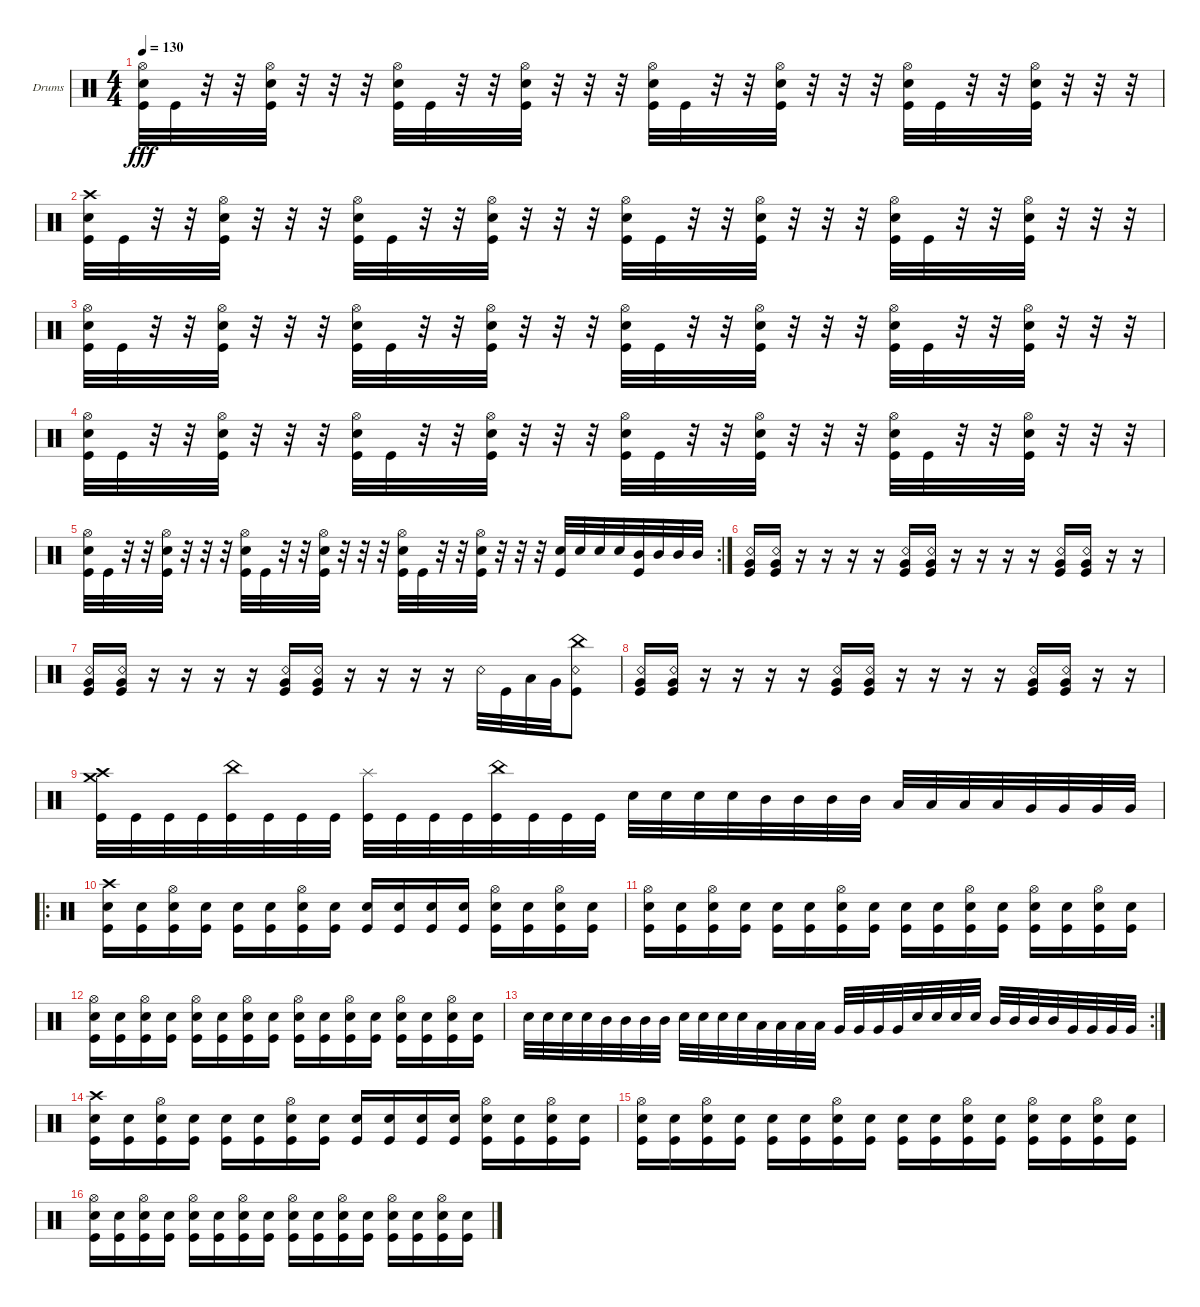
\bracketExtendMode groupsimilarinstruments
\firstSystemTrackNameOrientation horizontal
\otherSystemsTrackNameOrientation horizontal
\track ("Drumkit" "Drums") {instrument percussion}
\staff {score}
\articulation defaults
\ts (4 4)
\tempo 130
\clef neutral
\scale
0.333333
\ks c
("Hi-Hat (open)" "Snare (hit) 2" "Kick (hit)").32{dy fff} "Kick (hit)".32 r.32 r.32 ("Hi-Hat (open)" "Snare (hit) 2" "Kick (hit)").32 r.32 r.32 r.32 ("Hi-Hat (open)" "Snare (hit) 2" "Kick (hit)").32 "Kick (hit)".32 r.32 r.32 ("Hi-Hat (open)" "Snare (hit) 2" "Kick (hit)").32 r.32 r.32 r.32 ("Hi-Hat (open)" "Snare (hit) 2" "Kick (hit)").32 "Kick (hit)".32 r.32 r.32 ("Hi-Hat (open)" "Snare (hit) 2" "Kick (hit)").32 r.32 r.32 r.32 ("Hi-Hat (open)" "Snare (hit) 2" "Kick (hit)").32 "Kick (hit)".32 r.32 r.32 ("Hi-Hat (open)" "Snare (hit) 2" "Kick (hit)").32 r.32 r.32 r.32 |
\scale
0.333333 ("Snare (hit) 2" "Crash high (hit)" "Kick (hit)").32 "Kick (hit)".32 r.32 r.32 ("Hi-Hat (open)" "Snare (hit) 2" "Kick (hit)").32 r.32 r.32 r.32 ("Hi-Hat (open)" "Snare (hit) 2" "Kick (hit)").32 "Kick (hit)".32 r.32 r.32 ("Hi-Hat (open)" "Snare (hit) 2" "Kick (hit)").32 r.32 r.32 r.32 ("Hi-Hat (open)" "Snare (hit) 2" "Kick (hit)").32 "Kick (hit)".32 r.32 r.32 ("Hi-Hat (open)" "Snare (hit) 2" "Kick (hit)").32 r.32 r.32 r.32 ("Hi-Hat (open)" "Snare (hit) 2" "Kick (hit)").32 "Kick (hit)".32 r.32 r.32 ("Hi-Hat (open)" "Snare (hit) 2" "Kick (hit)").32 r.32 r.32 r.32 |
\scale
0.321839 ("Hi-Hat (open)" "Snare (hit) 2" "Kick (hit)").32 "Kick (hit)".32 r.32 r.32 ("Hi-Hat (open)" "Snare (hit) 2" "Kick (hit)").32 r.32 r.32 r.32 ("Hi-Hat (open)" "Snare (hit) 2" "Kick (hit)").32 "Kick (hit)".32 r.32 r.32 ("Hi-Hat (open)" "Snare (hit) 2" "Kick (hit)").32 r.32 r.32 r.32 ("Hi-Hat (open)" "Snare (hit) 2" "Kick (hit)").32 "Kick (hit)".32 r.32 r.32 ("Hi-Hat (open)" "Snare (hit) 2" "Kick (hit)").32 r.32 r.32 r.32 ("Hi-Hat (open)" "Snare (hit) 2" "Kick (hit)").32 "Kick (hit)".32 r.32 r.32 ("Hi-Hat (open)" "Snare (hit) 2" "Kick (hit)").32 r.32 r.32 r.32 |
\scale
0.321839 ("Hi-Hat (open)" "Snare (hit) 2" "Kick (hit)").32 "Kick (hit)".32 r.32 r.32 ("Hi-Hat (open)" "Snare (hit) 2" "Kick (hit)").32 r.32 r.32 r.32 ("Hi-Hat (open)" "Snare (hit) 2" "Kick (hit)").32 "Kick (hit)".32 r.32 r.32 ("Hi-Hat (open)" "Snare (hit) 2" "Kick (hit)").32 r.32 r.32 r.32 ("Hi-Hat (open)" "Snare (hit) 2" "Kick (hit)").32 "Kick (hit)".32 r.32 r.32 ("Hi-Hat (open)" "Snare (hit) 2" "Kick (hit)").32 r.32 r.32 r.32 ("Hi-Hat (open)" "Snare (hit) 2" "Kick (hit)").32 "Kick (hit)".32 r.32 r.32 ("Hi-Hat (open)" "Snare (hit) 2" "Kick (hit)").32 r.32 r.32 r.32 |
\rc 2
\scale
0.356322 ("Hi-Hat (open)" "Snare (hit) 2" "Kick (hit)").32 "Kick (hit)".32 r.32 r.32 ("Hi-Hat (open)" "Snare (hit) 2" "Kick (hit)").32 r.32 r.32 r.32 ("Hi-Hat (open)" "Snare (hit) 2" "Kick (hit)").32 "Kick (hit)".32 r.32 r.32 ("Hi-Hat (open)" "Snare (hit) 2" "Kick (hit)").32 r.32 r.32 r.32 ("Hi-Hat (open)" "Snare (hit) 2" "Kick (hit)").32 "Kick (hit)".32 r.32 r.32 ("Hi-Hat (open)" "Snare (hit) 2" "Kick (hit)").32 r.32 r.32 r.32 ("Kick (hit)" "Snare (hit) 2").32 "Snare (hit) 2".32 "Snare (hit) 2".32 "Snare (hit) 2".32 ("Kick (hit)" "Mid Tom (hit)").32 "Mid Tom (hit)".32 "Mid Tom (hit)".32 "Mid Tom (hit)".32 |
\scale
0.333333 ("Kick (hit)" "Snare (rim shot)" "Very Low Tom (hit)").16 ("Kick (hit)" "Snare (rim shot)" "Very Low Tom (hit)").16 r.16 r.16 r.16 r.16 ("Kick (hit)" "Snare (rim shot)" "Very Low Tom (hit)").16 ("Kick (hit)" "Snare (rim shot)" "Very Low Tom (hit)").16 r.16 r.16 r.16 r.16 ("Kick (hit)" "Snare (rim shot)" "Very Low Tom (hit)").16 ("Kick (hit)" "Snare (rim shot)" "Very Low Tom (hit)").16 r.16 r.16 |
\scale
0.333333 ("Kick (hit)" "Snare (rim shot)" "Very Low Tom (hit)").16 ("Kick (hit)" "Snare (rim shot)" "Very Low Tom (hit)").16 r.16 r.16 r.16 r.16 ("Kick (hit)" "Snare (rim shot)" "Very Low Tom (hit)").16 ("Kick (hit)" "Snare (rim shot)" "Very Low Tom (hit)").16 r.16 r.16 r.16 r.16 "Snare (rim shot)".32 "Kick (hit)".32 "Low Tom (hit)".32 "Very Low Tom (hit)".32 ("Kick (hit)" "Snare (rim shot)" "China (hit)").8 |
\scale
0.333333 ("Kick (hit)" "Snare (rim shot)" "Very Low Tom (hit)").16 ("Kick (hit)" "Snare (rim shot)" "Very Low Tom (hit)").16 r.16 r.16 r.16 r.16 ("Kick (hit)" "Snare (rim shot)" "Very Low Tom (hit)").16 ("Kick (hit)" "Snare (rim shot)" "Very Low Tom (hit)").16 r.16 r.16 r.16 r.16 ("Kick (hit)" "Snare (rim shot)" "Very Low Tom (hit)").16 ("Kick (hit)" "Snare (rim shot)" "Very Low Tom (hit)").16 r.16 r.16 |
\scale
0.311111 ("Kick (hit)" "Crash high (hit)" "Crash medium (hit)").32 "Kick (hit)".32 "Kick (hit)".32 "Kick (hit)".32 ("Kick (hit)" "China (hit)").32 "Kick (hit)".32 "Kick (hit)".32 "Kick (hit)".32 ("Kick (hit)" "Splash (hit)").32 "Kick (hit)".32 "Kick (hit)".32 "Kick (hit)".32 ("Kick (hit)" "China (hit)").32 "Kick (hit)".32 "Kick (hit)".32 "Kick (hit)".32 "Snare (hit) 2".32 "Snare (hit) 2".32 "Snare (hit) 2".32 "Snare (hit) 2".32 "Mid Tom (hit)".32 "Mid Tom (hit)".32 "Mid Tom (hit)".32 "Mid Tom (hit)".32 "Low Tom (hit)".32 "Low Tom (hit)".32 "Low Tom (hit)".32 "Low Tom (hit)".32 "Very Low Tom (hit)".32 "Very Low Tom (hit)".32 "Very Low Tom (hit)".32 "Very Low Tom (hit)".32 |
\ro
\scale
0.377778 ("Snare (hit) 2" "Kick (hit)" "Crash high (hit)").16 ("Snare (hit) 2" "Kick (hit)").16 ("Snare (hit) 2" "Kick (hit)" "Hi-Hat (open)").16 ("Snare (hit) 2" "Kick (hit)").16 ("Snare (hit) 2" "Kick (hit)").16 ("Snare (hit) 2" "Kick (hit)").16 ("Snare (hit) 2" "Kick (hit)" "Hi-Hat (open)").16 ("Snare (hit) 2" "Kick (hit)").16 ("Snare (hit) 2" "Kick (hit)").16 ("Snare (hit) 2" "Kick (hit)").16 ("Snare (hit) 2" "Kick (hit)").16 ("Snare (hit) 2" "Kick (hit)").16 ("Snare (hit) 2" "Kick (hit)" "Hi-Hat (open)").16 ("Snare (hit) 2" "Kick (hit)").16 ("Snare (hit) 2" "Kick (hit)" "Hi-Hat (open)").16 ("Snare (hit) 2" "Kick (hit)").16 |
\scale
0.311111 ("Snare (hit) 2" "Kick (hit)" "Hi-Hat (open)").16 ("Snare (hit) 2" "Kick (hit)").16 ("Snare (hit) 2" "Kick (hit)" "Hi-Hat (open)").16 ("Snare (hit) 2" "Kick (hit)").16 ("Snare (hit) 2" "Kick (hit)").16 ("Snare (hit) 2" "Kick (hit)").16 ("Snare (hit) 2" "Kick (hit)" "Hi-Hat (open)").16 ("Snare (hit) 2" "Kick (hit)").16 ("Snare (hit) 2" "Kick (hit)").16 ("Snare (hit) 2" "Kick (hit)").16 ("Snare (hit) 2" "Kick (hit)" "Hi-Hat (open)").16 ("Snare (hit) 2" "Kick (hit)").16 ("Snare (hit) 2" "Kick (hit)" "Hi-Hat (open)").16 ("Snare (hit) 2" "Kick (hit)").16 ("Snare (hit) 2" "Kick (hit)" "Hi-Hat (open)").16 ("Snare (hit) 2" "Kick (hit)").16 |
\scale
0.321839 ("Snare (hit) 2" "Kick (hit)" "Hi-Hat (open)").16 ("Snare (hit) 2" "Kick (hit)").16 ("Snare (hit) 2" "Kick (hit)" "Hi-Hat (open)").16 ("Snare (hit) 2" "Kick (hit)").16 ("Snare (hit) 2" "Kick (hit)" "Hi-Hat (open)").16 ("Snare (hit) 2" "Kick (hit)").16 ("Snare (hit) 2" "Kick (hit)" "Hi-Hat (open)").16 ("Snare (hit) 2" "Kick (hit)").16 ("Snare (hit) 2" "Kick (hit)" "Hi-Hat (open)").16 ("Snare (hit) 2" "Kick (hit)").16 ("Snare (hit) 2" "Kick (hit)" "Hi-Hat (open)").16 ("Snare (hit) 2" "Kick (hit)").16 ("Snare (hit) 2" "Kick (hit)" "Hi-Hat (open)").16 ("Snare (hit) 2" "Kick (hit)").16 ("Snare (hit) 2" "Kick (hit)" "Hi-Hat (open)").16 ("Snare (hit) 2" "Kick (hit)").16 |
\rc 2
\scale
0.356322 "Snare (hit) 2".32 "Snare (hit) 2".32 "Snare (hit) 2".32 "Snare (hit) 2".32 "Mid Tom (hit)".32 "Mid Tom (hit)".32 "Mid Tom (hit)".32 "Mid Tom (hit)".32 "Snare (hit) 2".32 "Snare (hit) 2".32 "Snare (hit) 2".32 "Snare (hit) 2".32 "Low Tom (hit)".32 "Low Tom (hit)".32 "Low Tom (hit)".32 "Low Tom (hit)".32 "Very Low Tom (hit)".32 "Very Low Tom (hit)".32 "Very Low Tom (hit)".32 "Very Low Tom (hit)".32 "Snare (hit) 2".32 "Snare (hit) 2".32 "Snare (hit) 2".32 "Snare (hit) 2".32 "Mid Tom (hit)".32 "Mid Tom (hit)".32 "Mid Tom (hit)".32 "Mid Tom (hit)".32 "Very Low Tom (hit)".32 "Very Low Tom (hit)".32 "Very Low Tom (hit)".32 "Very Low Tom (hit)".32 |
\scale
0.321839 ("Snare (hit) 2" "Kick (hit)" "Crash high (hit)").16 ("Snare (hit) 2" "Kick (hit)").16 ("Snare (hit) 2" "Kick (hit)" "Hi-Hat (open)").16 ("Snare (hit) 2" "Kick (hit)").16 ("Snare (hit) 2" "Kick (hit)").16 ("Snare (hit) 2" "Kick (hit)").16 ("Snare (hit) 2" "Kick (hit)" "Hi-Hat (open)").16 ("Snare (hit) 2" "Kick (hit)").16 ("Snare (hit) 2" "Kick (hit)").16 ("Snare (hit) 2" "Kick (hit)").16 ("Snare (hit) 2" "Kick (hit)").16 ("Snare (hit) 2" "Kick (hit)").16 ("Snare (hit) 2" "Kick (hit)" "Hi-Hat (open)").16 ("Snare (hit) 2" "Kick (hit)").16 ("Snare (hit) 2" "Kick (hit)" "Hi-Hat (open)").16 ("Snare (hit) 2" "Kick (hit)").16 |
\scale
0.333333 ("Snare (hit) 2" "Kick (hit)" "Hi-Hat (open)").16 ("Snare (hit) 2" "Kick (hit)").16 ("Snare (hit) 2" "Kick (hit)" "Hi-Hat (open)").16 ("Snare (hit) 2" "Kick (hit)").16 ("Snare (hit) 2" "Kick (hit)").16 ("Snare (hit) 2" "Kick (hit)").16 ("Snare (hit) 2" "Kick (hit)" "Hi-Hat (open)").16 ("Snare (hit) 2" "Kick (hit)").16 ("Snare (hit) 2" "Kick (hit)").16 ("Snare (hit) 2" "Kick (hit)").16 ("Snare (hit) 2" "Kick (hit)" "Hi-Hat (open)").16 ("Snare (hit) 2" "Kick (hit)").16 ("Snare (hit) 2" "Kick (hit)" "Hi-Hat (open)").16 ("Snare (hit) 2" "Kick (hit)").16 ("Snare (hit) 2" "Kick (hit)" "Hi-Hat (open)").16 ("Snare (hit) 2" "Kick (hit)").16 |
\scale
0.333333 ("Snare (hit) 2" "Kick (hit)" "Hi-Hat (open)").16 ("Snare (hit) 2" "Kick (hit)").16 ("Snare (hit) 2" "Kick (hit)" "Hi-Hat (open)").16 ("Snare (hit) 2" "Kick (hit)").16 ("Snare (hit) 2" "Kick (hit)" "Hi-Hat (open)").16 ("Snare (hit) 2" "Kick (hit)").16 ("Snare (hit) 2" "Kick (hit)" "Hi-Hat (open)").16 ("Snare (hit) 2" "Kick (hit)").16 ("Snare (hit) 2" "Kick (hit)" "Hi-Hat (open)").16 ("Snare (hit) 2" "Kick (hit)").16 ("Snare (hit) 2" "Kick (hit)" "Hi-Hat (open)").16 ("Snare (hit) 2" "Kick (hit)").16 ("Snare (hit) 2" "Kick (hit)" "Hi-Hat (open)").16 ("Snare (hit) 2" "Kick (hit)").16 ("Snare (hit) 2" "Kick (hit)" "Hi-Hat (open)").16 ("Snare (hit) 2" "Kick (hit)").16
